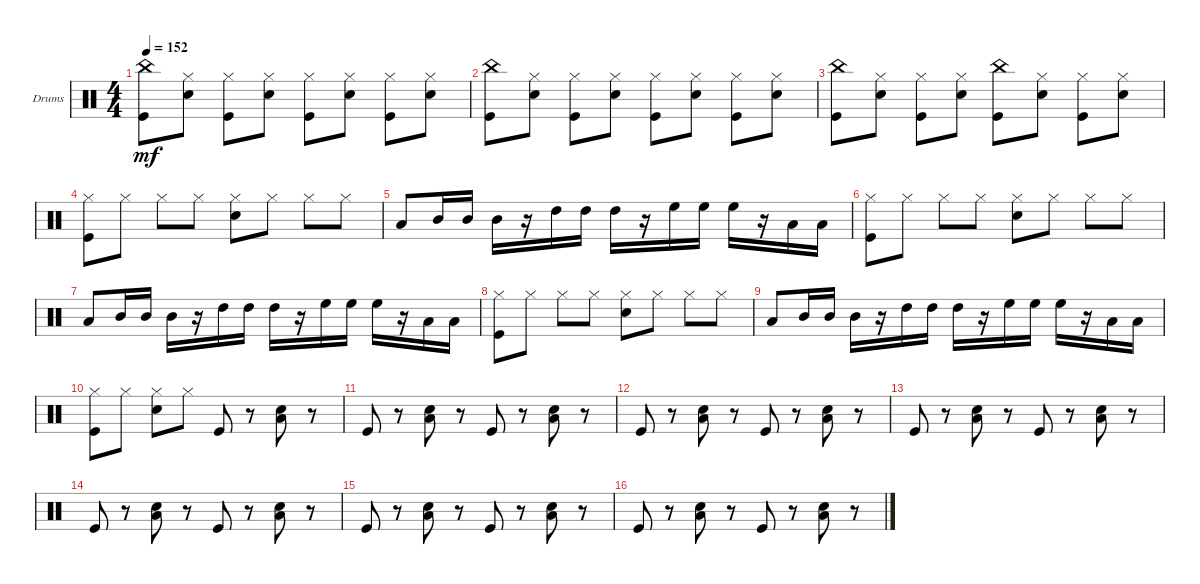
\defaultSystemsLayout 4
\bracketExtendMode groupsimilarinstruments
\firstSystemTrackNameOrientation horizontal
\otherSystemsTrackNameOrientation horizontal
\track ("Drumkit" "Drums") {instrument percussion}
\staff {score}
\articulation defaults
\ts (4 4)
\tempo 152
\clef neutral
\ks c
("Kick (hit)" "China (hit)").8{dy mf} ("Snare (hit) 2" "Hi-Hat (closed)").8 ("Hi-Hat (closed)" "Kick (hit)").8 ("Hi-Hat (closed)" "Snare (hit) 2").8 ("Hi-Hat (closed)" "Kick (hit)").8 ("Hi-Hat (closed)" "Snare (hit) 2").8 ("Hi-Hat (closed)" "Kick (hit)").8 ("Hi-Hat (closed)" "Snare (hit) 2").8 |
("Kick (hit)" "China (hit)").8 ("Snare (hit) 2" "Hi-Hat (closed)").8 ("Hi-Hat (closed)" "Kick (hit)").8 ("Hi-Hat (closed)" "Snare (hit) 2").8 ("Hi-Hat (closed)" "Kick (hit)").8 ("Hi-Hat (closed)" "Snare (hit) 2").8 ("Hi-Hat (closed)" "Kick (hit)").8 ("Hi-Hat (closed)" "Snare (hit) 2").8 |
("Kick (hit)" "China (hit)").8 ("Snare (hit) 2" "Hi-Hat (closed)").8 ("Hi-Hat (closed)" "Kick (hit)").8 ("Hi-Hat (closed)" "Snare (hit) 2").8 ("Kick (hit)" "China (hit)").8 ("Hi-Hat (closed)" "Snare (hit) 2").8 ("Hi-Hat (closed)" "Kick (hit)").8 ("Hi-Hat (closed)" "Snare (hit) 2").8 |
("Kick (hit)" "Hi-Hat (closed)").8 "Hi-Hat (closed)".8 "Hi-Hat (closed)".8 "Hi-Hat (closed)".8 ("Hi-Hat (closed)" "Snare (hit) 2").8 "Hi-Hat (closed)".8 "Hi-Hat (closed)".8 "Hi-Hat (closed)".8 |
"Low Tom (hit)".8 "Mid Tom (hit)".16 "Mid Tom (hit)".16 "Mid Tom (hit)".16 r.16 "High Tom (hit)".16 "High Tom (hit)".16 "High Tom (hit)".16 r.16 "High Floor Tom (hit)".16 "High Floor Tom (hit)".16 "High Floor Tom (hit)".16 r.16 "Low Tom (hit)".16 "Low Tom (hit)".16 |
("Kick (hit)" "Hi-Hat (closed)").8 "Hi-Hat (closed)".8 "Hi-Hat (closed)".8 "Hi-Hat (closed)".8 ("Hi-Hat (closed)" "Snare (hit) 2").8 "Hi-Hat (closed)".8 "Hi-Hat (closed)".8 "Hi-Hat (closed)".8 |
"Low Tom (hit)".8 "Mid Tom (hit)".16 "Mid Tom (hit)".16 "Mid Tom (hit)".16 r.16 "High Tom (hit)".16 "High Tom (hit)".16 "High Tom (hit)".16 r.16 "High Floor Tom (hit)".16 "High Floor Tom (hit)".16 "High Floor Tom (hit)".16 r.16 "Low Tom (hit)".16 "Low Tom (hit)".16 |
("Kick (hit)" "Hi-Hat (closed)").8 "Hi-Hat (closed)".8 "Hi-Hat (closed)".8 "Hi-Hat (closed)".8 ("Hi-Hat (closed)" "Snare (hit) 2").8 "Hi-Hat (closed)".8 "Hi-Hat (closed)".8 "Hi-Hat (closed)".8 |
"Low Tom (hit)".8 "Mid Tom (hit)".16 "Mid Tom (hit)".16 "Mid Tom (hit)".16 r.16 "High Tom (hit)".16 "High Tom (hit)".16 "High Tom (hit)".16 r.16 "High Floor Tom (hit)".16 "High Floor Tom (hit)".16 "High Floor Tom (hit)".16 r.16 "Low Tom (hit)".16 "Low Tom (hit)".16 |
("Kick (hit)" "Hi-Hat (closed)").8 "Hi-Hat (closed)".8 ("Hi-Hat (closed)" "Snare (hit) 2").8 "Hi-Hat (closed)".8 "Kick (hit)".8 r.8 ("Snare (hit) 2" "Low Tom (hit)").8 r.8 |
"Kick (hit)".8 r.8 ("Snare (hit) 2" "Low Tom (hit)").8 r.8 "Kick (hit)".8 r.8 ("Snare (hit) 2" "Low Tom (hit)").8 r.8 |
"Kick (hit)".8 r.8 ("Snare (hit) 2" "Low Tom (hit)").8 r.8 "Kick (hit)".8 r.8 ("Snare (hit) 2" "Low Tom (hit)").8 r.8 |
"Kick (hit)".8 r.8 ("Snare (hit) 2" "Low Tom (hit)").8 r.8 "Kick (hit)".8 r.8 ("Snare (hit) 2" "Low Tom (hit)").8 r.8 |
"Kick (hit)".8 r.8 ("Snare (hit) 2" "Low Tom (hit)").8 r.8 "Kick (hit)".8 r.8 ("Snare (hit) 2" "Low Tom (hit)").8 r.8 |
"Kick (hit)".8 r.8 ("Snare (hit) 2" "Low Tom (hit)").8 r.8 "Kick (hit)".8 r.8 ("Snare (hit) 2" "Low Tom (hit)").8 r.8 |
"Kick (hit)".8 r.8 ("Snare (hit) 2" "Low Tom (hit)").8 r.8 "Kick (hit)".8 r.8 ("Snare (hit) 2" "Low Tom (hit)").8 r.8
